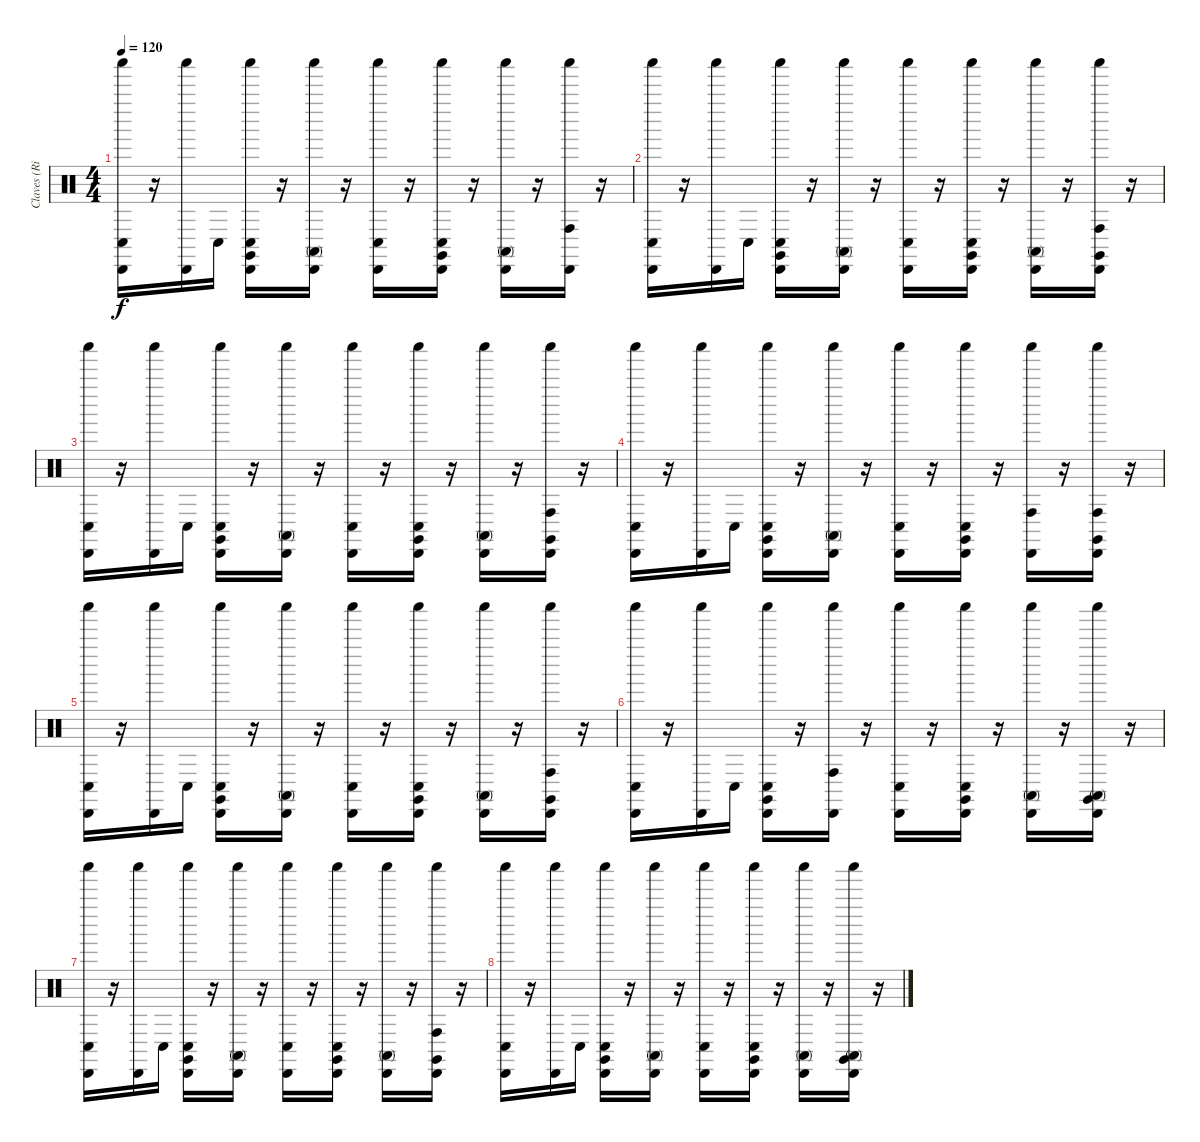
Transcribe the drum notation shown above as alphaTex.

\track ("Claves (Ringo)" "Claves (Ri") {instrument percussion}
\staff {score}
\articulation defaults
\ts (4 4)
\tempo 120
\clef neutral
\ks c
("Shaker (hit)" "Conga low (hit)" "Cabasa (hit)").16{dy f} r.16 ("Cabasa (hit)" "Shaker (hit)").16 "Conga low (hit)".16 ("Cabasa (hit)" "Conga low (hit)" "Shaker (hit)" "Claves (hit)").16 r.16 ("Cabasa (hit)" "Shaker (hit)" "Conga high (mute)").16 r.16 ("Cabasa (hit)" "Shaker (hit)" "Conga low (hit)").16 r.16 ("Conga low (hit)" "Claves (hit)" "Shaker (hit)" "Cabasa (hit)").16 r.16 ("Cabasa (hit)" "Conga high (mute)" "Shaker (hit)").16 r.16 ("Shaker (hit)" "Conga high (hit)" "Cabasa (hit)").16 r.16 |
("Cabasa (hit)" "Conga low (hit)" "Shaker (hit)").16 r.16 ("Cabasa (hit)" "Shaker (hit)").16 "Conga low (hit)".16 ("Conga low (hit)" "Cabasa (hit)" "Shaker (hit)" "Claves (hit)").16 r.16 ("Shaker (hit)" "Conga high (mute)" "Cabasa (hit)").16 r.16 ("Shaker (hit)" "Conga low (hit)" "Cabasa (hit)").16 r.16 ("Cabasa (hit)" "Shaker (hit)" "Claves (hit)" "Conga low (hit)").16 r.16 ("Shaker (hit)" "Cabasa (hit)" "Conga high (mute)").16 r.16 ("Claves (hit)" "Conga high (hit)" "Cabasa (hit)" "Shaker (hit)").16 r.16 |
("Cabasa (hit)" "Shaker (hit)" "Conga low (hit)").16 r.16 ("Shaker (hit)" "Cabasa (hit)").16 "Conga low (hit)".16 ("Conga low (hit)" "Claves (hit)" "Cabasa (hit)" "Shaker (hit)").16 r.16 ("Conga high (mute)" "Shaker (hit)" "Cabasa (hit)").16 r.16 ("Shaker (hit)" "Cabasa (hit)" "Conga low (hit)").16 r.16 ("Shaker (hit)" "Conga low (hit)" "Claves (hit)" "Cabasa (hit)").16 r.16 ("Cabasa (hit)" "Shaker (hit)" "Conga high (mute)").16 r.16 ("Conga high (hit)" "Cabasa (hit)" "Claves (hit)" "Shaker (hit)").16 r.16 |
("Conga low (hit)" "Cabasa (hit)" "Shaker (hit)").16 r.16 ("Cabasa (hit)" "Shaker (hit)").16 "Conga low (hit)".16 ("Shaker (hit)" "Conga low (hit)" "Claves (hit)" "Cabasa (hit)").16 r.16 ("Cabasa (hit)" "Shaker (hit)" "Conga high (mute)").16 r.16 ("Conga low (hit)" "Shaker (hit)" "Cabasa (hit)").16 r.16 ("Shaker (hit)" "Cabasa (hit)" "Conga low (hit)" "Claves (hit)").16 r.16 ("Conga high (hit)" "Cabasa (hit)" "Shaker (hit)").16 r.16 ("Claves (hit)" "Conga high (hit)" "Shaker (hit)" "Cabasa (hit)").16 r.16 |
("Cabasa (hit)" "Conga low (hit)" "Shaker (hit)").16 r.16 ("Cabasa (hit)" "Shaker (hit)").16 "Conga low (hit)".16 ("Conga low (hit)" "Shaker (hit)" "Cabasa (hit)" "Claves (hit)").16 r.16 ("Conga high (mute)" "Shaker (hit)" "Cabasa (hit)").16 r.16 ("Shaker (hit)" "Cabasa (hit)" "Conga low (hit)").16 r.16 ("Conga low (hit)" "Shaker (hit)" "Claves (hit)" "Cabasa (hit)").16 r.16 ("Conga high (mute)" "Cabasa (hit)" "Shaker (hit)").16 r.16 ("Claves (hit)" "Conga high (hit)" "Cabasa (hit)" "Shaker (hit)").16 r.16 |
("Shaker (hit)" "Cabasa (hit)" "Conga low (hit)").16 r.16 ("Cabasa (hit)" "Shaker (hit)").16 "Conga low (hit)".16 ("Shaker (hit)" "Cabasa (hit)" "Claves (hit)" "Conga low (hit)").16 r.16 ("Shaker (hit)" "Cabasa (hit)" "Conga high (hit)").16 r.16 ("Conga low (hit)" "Cabasa (hit)" "Shaker (hit)").16 r.16 ("Claves (hit)" "Conga low (hit)" "Cabasa (hit)" "Shaker (hit)").16 r.16 ("Conga high (mute)" "Shaker (hit)" "Cabasa (hit)").16 r.16 ("Conga high (mute)" "Cabasa (hit)" "Claves (hit)" "Shaker (hit)").16 r.16 |
("Cabasa (hit)" "Conga low (hit)" "Shaker (hit)").16 r.16 ("Cabasa (hit)" "Shaker (hit)").16 "Conga low (hit)".16 ("Shaker (hit)" "Cabasa (hit)" "Conga low (hit)" "Claves (hit)").16 r.16 ("Cabasa (hit)" "Conga high (mute)" "Shaker (hit)").16 r.16 ("Conga low (hit)" "Shaker (hit)" "Cabasa (hit)").16 r.16 ("Shaker (hit)" "Claves (hit)" "Cabasa (hit)" "Conga low (hit)").16 r.16 ("Conga high (mute)" "Cabasa (hit)" "Shaker (hit)").16 r.16 ("Claves (hit)" "Shaker (hit)" "Conga high (hit)" "Cabasa (hit)").16 r.16 |
("Conga low (hit)" "Shaker (hit)" "Cabasa (hit)").16 r.16 ("Shaker (hit)" "Cabasa (hit)").16 "Conga low (hit)".16 ("Claves (hit)" "Shaker (hit)" "Conga low (hit)" "Cabasa (hit)").16 r.16 ("Conga high (mute)" "Cabasa (hit)" "Shaker (hit)").16 r.16 ("Shaker (hit)" "Cabasa (hit)" "Conga low (hit)").16 r.16 ("Claves (hit)" "Shaker (hit)" "Cabasa (hit)" "Conga low (hit)").16 r.16 ("Cabasa (hit)" "Shaker (hit)" "Conga high (mute)").16 r.16 ("Conga high (mute)" "Cabasa (hit)" "Claves (hit)" "Shaker (hit)").16 r.16
